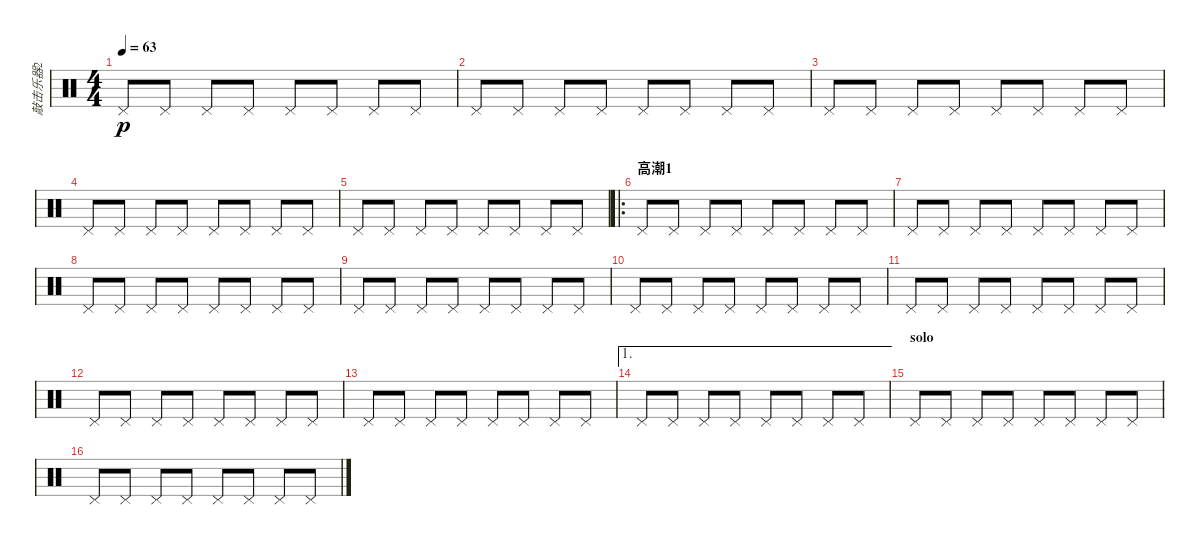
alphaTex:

\track ("敲击乐器2" "敲击乐器2") {instrument percussion}
\staff {score}
\articulation defaults
\ts (4 4)
\tempo 63
\clef neutral
\ks c "Pedal Hi-Hat (hit)".8{dy p} "Pedal Hi-Hat (hit)".8 "Pedal Hi-Hat (hit)".8 "Pedal Hi-Hat (hit)".8 "Pedal Hi-Hat (hit)".8 "Pedal Hi-Hat (hit)".8 "Pedal Hi-Hat (hit)".8 "Pedal Hi-Hat (hit)".8
|
"Pedal Hi-Hat (hit)".8 "Pedal Hi-Hat (hit)".8 "Pedal Hi-Hat (hit)".8 "Pedal Hi-Hat (hit)".8 "Pedal Hi-Hat (hit)".8 "Pedal Hi-Hat (hit)".8 "Pedal Hi-Hat (hit)".8 "Pedal Hi-Hat (hit)".8 |
"Pedal Hi-Hat (hit)".8 "Pedal Hi-Hat (hit)".8 "Pedal Hi-Hat (hit)".8 "Pedal Hi-Hat (hit)".8 "Pedal Hi-Hat (hit)".8 "Pedal Hi-Hat (hit)".8 "Pedal Hi-Hat (hit)".8 "Pedal Hi-Hat (hit)".8 |
"Pedal Hi-Hat (hit)".8 "Pedal Hi-Hat (hit)".8 "Pedal Hi-Hat (hit)".8 "Pedal Hi-Hat (hit)".8 "Pedal Hi-Hat (hit)".8 "Pedal Hi-Hat (hit)".8 "Pedal Hi-Hat (hit)".8 "Pedal Hi-Hat (hit)".8 |
"Pedal Hi-Hat (hit)".8 "Pedal Hi-Hat (hit)".8 "Pedal Hi-Hat (hit)".8 "Pedal Hi-Hat (hit)".8 "Pedal Hi-Hat (hit)".8 "Pedal Hi-Hat (hit)".8 "Pedal Hi-Hat (hit)".8 "Pedal Hi-Hat (hit)".8 |
\ro
\section ("" "高潮1")
"Pedal Hi-Hat (hit)".8 "Pedal Hi-Hat (hit)".8 "Pedal Hi-Hat (hit)".8 "Pedal Hi-Hat (hit)".8 "Pedal Hi-Hat (hit)".8 "Pedal Hi-Hat (hit)".8 "Pedal Hi-Hat (hit)".8 "Pedal Hi-Hat (hit)".8 |
"Pedal Hi-Hat (hit)".8 "Pedal Hi-Hat (hit)".8 "Pedal Hi-Hat (hit)".8 "Pedal Hi-Hat (hit)".8 "Pedal Hi-Hat (hit)".8 "Pedal Hi-Hat (hit)".8 "Pedal Hi-Hat (hit)".8 "Pedal Hi-Hat (hit)".8 |
"Pedal Hi-Hat (hit)".8 "Pedal Hi-Hat (hit)".8 "Pedal Hi-Hat (hit)".8 "Pedal Hi-Hat (hit)".8 "Pedal Hi-Hat (hit)".8 "Pedal Hi-Hat (hit)".8 "Pedal Hi-Hat (hit)".8 "Pedal Hi-Hat (hit)".8 |
"Pedal Hi-Hat (hit)".8 "Pedal Hi-Hat (hit)".8 "Pedal Hi-Hat (hit)".8 "Pedal Hi-Hat (hit)".8 "Pedal Hi-Hat (hit)".8 "Pedal Hi-Hat (hit)".8 "Pedal Hi-Hat (hit)".8 "Pedal Hi-Hat (hit)".8 |
"Pedal Hi-Hat (hit)".8 "Pedal Hi-Hat (hit)".8 "Pedal Hi-Hat (hit)".8 "Pedal Hi-Hat (hit)".8 "Pedal Hi-Hat (hit)".8 "Pedal Hi-Hat (hit)".8 "Pedal Hi-Hat (hit)".8 "Pedal Hi-Hat (hit)".8 |
"Pedal Hi-Hat (hit)".8 "Pedal Hi-Hat (hit)".8 "Pedal Hi-Hat (hit)".8 "Pedal Hi-Hat (hit)".8 "Pedal Hi-Hat (hit)".8 "Pedal Hi-Hat (hit)".8 "Pedal Hi-Hat (hit)".8 "Pedal Hi-Hat (hit)".8 |
"Pedal Hi-Hat (hit)".8 "Pedal Hi-Hat (hit)".8 "Pedal Hi-Hat (hit)".8 "Pedal Hi-Hat (hit)".8 "Pedal Hi-Hat (hit)".8 "Pedal Hi-Hat (hit)".8 "Pedal Hi-Hat (hit)".8 "Pedal Hi-Hat (hit)".8 |
"Pedal Hi-Hat (hit)".8 "Pedal Hi-Hat (hit)".8 "Pedal Hi-Hat (hit)".8 "Pedal Hi-Hat (hit)".8 "Pedal Hi-Hat (hit)".8 "Pedal Hi-Hat (hit)".8 "Pedal Hi-Hat (hit)".8 "Pedal Hi-Hat (hit)".8 |
\ae 1 "Pedal Hi-Hat (hit)".8 "Pedal Hi-Hat (hit)".8 "Pedal Hi-Hat (hit)".8 "Pedal Hi-Hat (hit)".8 "Pedal Hi-Hat (hit)".8 "Pedal Hi-Hat (hit)".8 "Pedal Hi-Hat (hit)".8 "Pedal Hi-Hat (hit)".8
|
\section ("" "solo")
"Pedal Hi-Hat (hit)".8 "Pedal Hi-Hat (hit)".8 "Pedal Hi-Hat (hit)".8 "Pedal Hi-Hat (hit)".8 "Pedal Hi-Hat (hit)".8 "Pedal Hi-Hat (hit)".8 "Pedal Hi-Hat (hit)".8 "Pedal Hi-Hat (hit)".8 |
"Pedal Hi-Hat (hit)".8 "Pedal Hi-Hat (hit)".8 "Pedal Hi-Hat (hit)".8 "Pedal Hi-Hat (hit)".8 "Pedal Hi-Hat (hit)".8 "Pedal Hi-Hat (hit)".8 "Pedal Hi-Hat (hit)".8 "Pedal Hi-Hat (hit)".8
